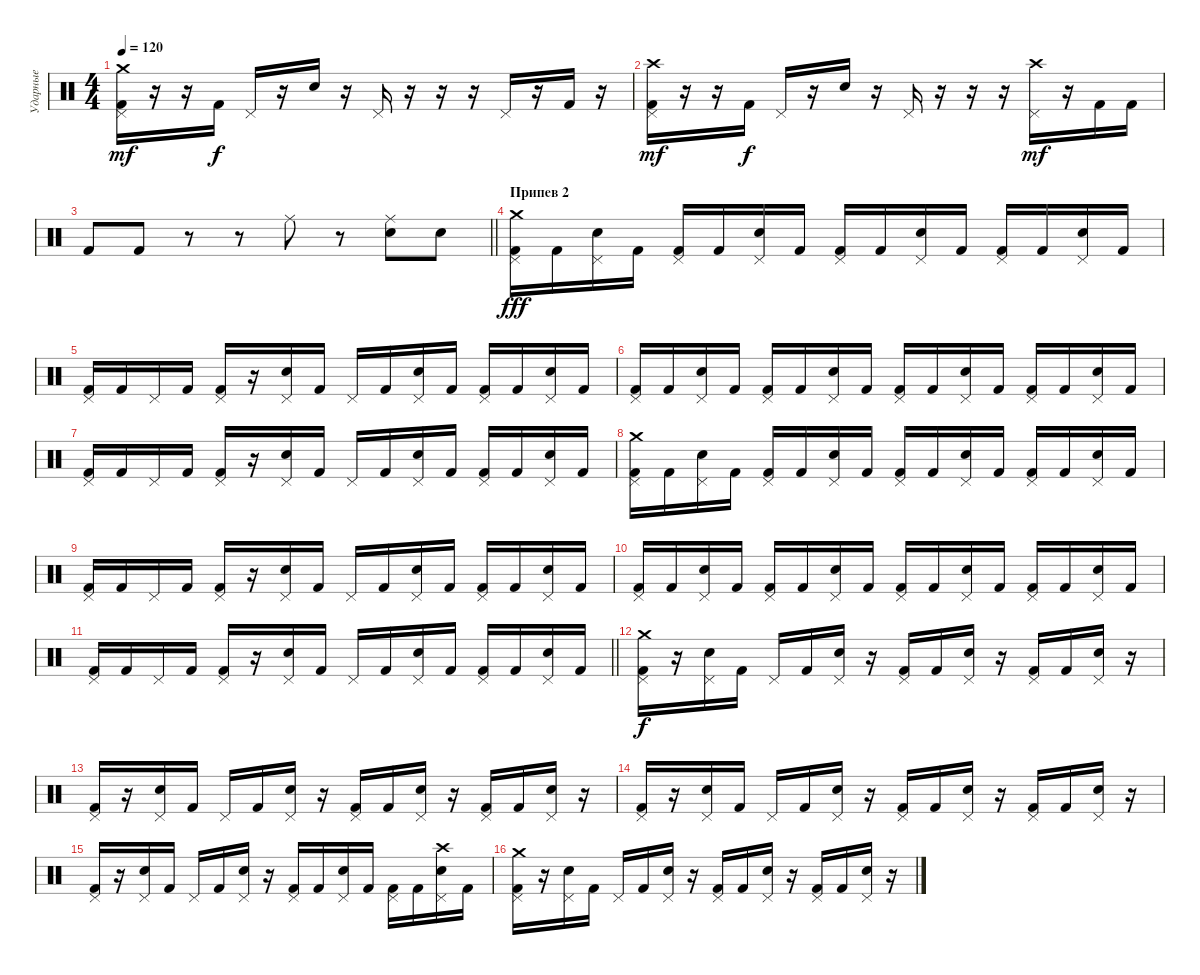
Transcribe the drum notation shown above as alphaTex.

\track ("Ударные" "Ударные") {instrument percussion}
\staff {score}
\articulation defaults
\ts (4 4)
\tempo 120
\clef neutral
\ks c
("Kick (hit) 2" "Pedal Hi-Hat (hit)" "Crash medium (hit)").16{dy mf} r.16 r.16 "Kick (hit) 2".16{dy f} "Pedal Hi-Hat (hit)".16 r.16 "Snare (hit) 2".16 r.16 "Pedal Hi-Hat (hit)".16 r.16 r.16 r.16 "Pedal Hi-Hat (hit)".16 r.16 "Kick (hit) 2".16 r.16 |
("Kick (hit) 2" "Pedal Hi-Hat (hit)" "Crash high (hit)").16{dy mf} r.16 r.16 "Kick (hit) 2".16{dy f} "Pedal Hi-Hat (hit)".16 r.16 "Snare (hit) 2".16 r.16 "Pedal Hi-Hat (hit)".16 r.16 r.16 r.16 ("Pedal Hi-Hat (hit)" "Crash high (hit)").16{dy mf} r.16 "Kick (hit) 2".16 "Kick (hit) 2".16 |
\barLineRight lightlight "Kick (hit) 2".8 "Kick (hit) 2".8
r.8 r.8 "Ride (middle)".8 r.8 ("Snare (hit) 2" "Ride (middle)").8 "Snare (hit) 2".8 |
\section ("" "Припев 2")
("Kick (hit) 2" "Pedal Hi-Hat (hit)" "Crash medium (hit)").16{dy fff} "Kick (hit) 2".16 ("Snare (hit) 2" "Pedal Hi-Hat (hit)").16 "Kick (hit) 2".16 ("Kick (hit) 2" "Pedal Hi-Hat (hit)").16 "Kick (hit) 2".16 ("Snare (hit) 2" "Pedal Hi-Hat (hit)").16 "Kick (hit) 2".16 ("Kick (hit) 2" "Pedal Hi-Hat (hit)").16 "Kick (hit) 2".16 ("Snare (hit) 2" "Pedal Hi-Hat (hit)").16 "Kick (hit) 2".16 ("Kick (hit) 2" "Pedal Hi-Hat (hit)").16 "Kick (hit) 2".16 ("Snare (hit) 2" "Pedal Hi-Hat (hit)").16 "Kick (hit) 2".16 |
("Kick (hit) 2" "Pedal Hi-Hat (hit)").16 "Kick (hit) 2".16 "Pedal Hi-Hat (hit)".16 "Kick (hit) 2".16 ("Kick (hit) 2" "Pedal Hi-Hat (hit)").16 r.16 ("Snare (hit) 2" "Pedal Hi-Hat (hit)").16 "Kick (hit) 2".16 "Pedal Hi-Hat (hit)".16 "Kick (hit) 2".16 ("Snare (hit) 2" "Pedal Hi-Hat (hit)").16 "Kick (hit) 2".16 ("Kick (hit) 2" "Pedal Hi-Hat (hit)").16 "Kick (hit) 2".16 ("Snare (hit) 2" "Pedal Hi-Hat (hit)").16 "Kick (hit) 2".16 |
("Kick (hit) 2" "Pedal Hi-Hat (hit)").16 "Kick (hit) 2".16 ("Snare (hit) 2" "Pedal Hi-Hat (hit)").16 "Kick (hit) 2".16 ("Kick (hit) 2" "Pedal Hi-Hat (hit)").16 "Kick (hit) 2".16 ("Snare (hit) 2" "Pedal Hi-Hat (hit)").16 "Kick (hit) 2".16 ("Kick (hit) 2" "Pedal Hi-Hat (hit)").16 "Kick (hit) 2".16 ("Snare (hit) 2" "Pedal Hi-Hat (hit)").16 "Kick (hit) 2".16 ("Kick (hit) 2" "Pedal Hi-Hat (hit)").16 "Kick (hit) 2".16 ("Snare (hit) 2" "Pedal Hi-Hat (hit)").16 "Kick (hit) 2".16 |
("Kick (hit) 2" "Pedal Hi-Hat (hit)").16 "Kick (hit) 2".16 "Pedal Hi-Hat (hit)".16 "Kick (hit) 2".16 ("Kick (hit) 2" "Pedal Hi-Hat (hit)").16 r.16 ("Snare (hit) 2" "Pedal Hi-Hat (hit)").16 "Kick (hit) 2".16 "Pedal Hi-Hat (hit)".16 "Kick (hit) 2".16 ("Snare (hit) 2" "Pedal Hi-Hat (hit)").16 "Kick (hit) 2".16 ("Kick (hit) 2" "Pedal Hi-Hat (hit)").16 "Kick (hit) 2".16 ("Snare (hit) 2" "Pedal Hi-Hat (hit)").16 "Kick (hit) 2".16 |
("Kick (hit) 2" "Pedal Hi-Hat (hit)" "Crash medium (hit)").16 "Kick (hit) 2".16 ("Snare (hit) 2" "Pedal Hi-Hat (hit)").16 "Kick (hit) 2".16 ("Kick (hit) 2" "Pedal Hi-Hat (hit)").16 "Kick (hit) 2".16 ("Snare (hit) 2" "Pedal Hi-Hat (hit)").16 "Kick (hit) 2".16 ("Kick (hit) 2" "Pedal Hi-Hat (hit)").16 "Kick (hit) 2".16 ("Snare (hit) 2" "Pedal Hi-Hat (hit)").16 "Kick (hit) 2".16 ("Kick (hit) 2" "Pedal Hi-Hat (hit)").16 "Kick (hit) 2".16 ("Snare (hit) 2" "Pedal Hi-Hat (hit)").16 "Kick (hit) 2".16 |
("Kick (hit) 2" "Pedal Hi-Hat (hit)").16 "Kick (hit) 2".16 "Pedal Hi-Hat (hit)".16 "Kick (hit) 2".16 ("Kick (hit) 2" "Pedal Hi-Hat (hit)").16 r.16 ("Snare (hit) 2" "Pedal Hi-Hat (hit)").16 "Kick (hit) 2".16 "Pedal Hi-Hat (hit)".16 "Kick (hit) 2".16 ("Snare (hit) 2" "Pedal Hi-Hat (hit)").16 "Kick (hit) 2".16 ("Kick (hit) 2" "Pedal Hi-Hat (hit)").16 "Kick (hit) 2".16 ("Snare (hit) 2" "Pedal Hi-Hat (hit)").16 "Kick (hit) 2".16 |
("Kick (hit) 2" "Pedal Hi-Hat (hit)").16 "Kick (hit) 2".16 ("Snare (hit) 2" "Pedal Hi-Hat (hit)").16 "Kick (hit) 2".16 ("Kick (hit) 2" "Pedal Hi-Hat (hit)").16 "Kick (hit) 2".16 ("Snare (hit) 2" "Pedal Hi-Hat (hit)").16 "Kick (hit) 2".16 ("Kick (hit) 2" "Pedal Hi-Hat (hit)").16 "Kick (hit) 2".16 ("Snare (hit) 2" "Pedal Hi-Hat (hit)").16 "Kick (hit) 2".16 ("Kick (hit) 2" "Pedal Hi-Hat (hit)").16 "Kick (hit) 2".16 ("Snare (hit) 2" "Pedal Hi-Hat (hit)").16 "Kick (hit) 2".16 |
\barLineRight lightlight
("Kick (hit) 2" "Pedal Hi-Hat (hit)").16 "Kick (hit) 2".16 "Pedal Hi-Hat (hit)".16 "Kick (hit) 2".16 ("Kick (hit) 2" "Pedal Hi-Hat (hit)").16 r.16 ("Snare (hit) 2" "Pedal Hi-Hat (hit)").16 "Kick (hit) 2".16 "Pedal Hi-Hat (hit)".16 "Kick (hit) 2".16 ("Snare (hit) 2" "Pedal Hi-Hat (hit)").16 "Kick (hit) 2".16 ("Kick (hit) 2" "Pedal Hi-Hat (hit)").16 "Kick (hit) 2".16 ("Snare (hit) 2" "Pedal Hi-Hat (hit)").16 "Kick (hit) 2".16 |
("Kick (hit) 2" "Pedal Hi-Hat (hit)" "Crash medium (hit)").16{dy f} r.16 ("Snare (hit) 2" "Pedal Hi-Hat (hit)").16 "Kick (hit) 2".16 "Pedal Hi-Hat (hit)".16 "Kick (hit) 2".16 ("Snare (hit) 2" "Pedal Hi-Hat (hit)").16 r.16 ("Kick (hit) 2" "Pedal Hi-Hat (hit)").16 "Kick (hit) 2".16 ("Snare (hit) 2" "Pedal Hi-Hat (hit)").16 r.16 ("Kick (hit) 2" "Pedal Hi-Hat (hit)").16 "Kick (hit) 2".16 ("Snare (hit) 2" "Pedal Hi-Hat (hit)").16 r.16 |
("Kick (hit) 2" "Pedal Hi-Hat (hit)").16 r.16 ("Snare (hit) 2" "Pedal Hi-Hat (hit)").16 "Kick (hit) 2".16 "Pedal Hi-Hat (hit)".16 "Kick (hit) 2".16 ("Snare (hit) 2" "Pedal Hi-Hat (hit)").16 r.16 ("Kick (hit) 2" "Pedal Hi-Hat (hit)").16 "Kick (hit) 2".16 ("Snare (hit) 2" "Pedal Hi-Hat (hit)").16 r.16 ("Kick (hit) 2" "Pedal Hi-Hat (hit)").16 "Kick (hit) 2".16 ("Snare (hit) 2" "Pedal Hi-Hat (hit)").16 r.16 |
("Kick (hit) 2" "Pedal Hi-Hat (hit)").16 r.16 ("Snare (hit) 2" "Pedal Hi-Hat (hit)").16 "Kick (hit) 2".16 "Pedal Hi-Hat (hit)".16 "Kick (hit) 2".16 ("Snare (hit) 2" "Pedal Hi-Hat (hit)").16 r.16 ("Kick (hit) 2" "Pedal Hi-Hat (hit)").16 "Kick (hit) 2".16 ("Snare (hit) 2" "Pedal Hi-Hat (hit)").16 r.16 ("Kick (hit) 2" "Pedal Hi-Hat (hit)").16 "Kick (hit) 2".16 ("Snare (hit) 2" "Pedal Hi-Hat (hit)").16 r.16 |
("Kick (hit) 2" "Pedal Hi-Hat (hit)").16 r.16 ("Snare (hit) 2" "Pedal Hi-Hat (hit)").16 "Kick (hit) 2".16 "Pedal Hi-Hat (hit)".16 "Kick (hit) 2".16 ("Snare (hit) 2" "Pedal Hi-Hat (hit)").16 r.16 ("Kick (hit) 2" "Pedal Hi-Hat (hit)").16 "Kick (hit) 2".16 ("Snare (hit) 2" "Pedal Hi-Hat (hit)").16 "Kick (hit) 2".16 ("Kick (hit) 2" "Pedal Hi-Hat (hit)").16 "Kick (hit) 2".16 ("Snare (hit) 2" "Pedal Hi-Hat (hit)" "Crash high (hit)").16 "Kick (hit) 2".16 |
("Kick (hit) 2" "Pedal Hi-Hat (hit)" "Crash medium (hit)").16 r.16 ("Snare (hit) 2" "Pedal Hi-Hat (hit)").16 "Kick (hit) 2".16 "Pedal Hi-Hat (hit)".16 "Kick (hit) 2".16 ("Snare (hit) 2" "Pedal Hi-Hat (hit)").16 r.16 ("Kick (hit) 2" "Pedal Hi-Hat (hit)").16 "Kick (hit) 2".16 ("Snare (hit) 2" "Pedal Hi-Hat (hit)").16 r.16 ("Kick (hit) 2" "Pedal Hi-Hat (hit)").16 "Kick (hit) 2".16 ("Snare (hit) 2" "Pedal Hi-Hat (hit)").16 r.16
